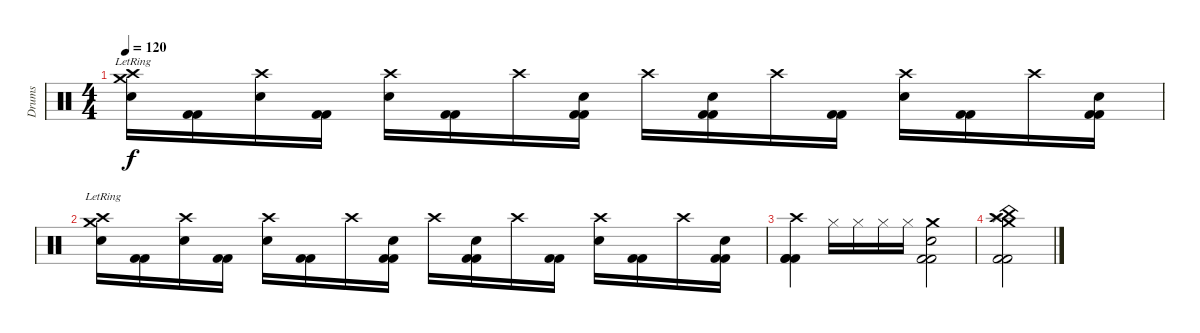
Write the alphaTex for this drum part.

\track ("Drums" "Drums") {instrument percussion}
\staff {score}
\articulation defaults
\ts (4 4)
\tempo 120
\clef neutral
\ks c
("Crash medium (hit)"{lr} "Crash high (hit)"{lr} "Electric Snare (hit)").16{dy f} ("Kick (hit) 2" "Kick (hit) 2").16 ("Crash high (hit)" "Electric Snare (hit)").16 ("Kick (hit) 2" "Kick (hit) 2").16 ("Crash high (hit)" "Electric Snare (hit)").16 ("Kick (hit) 2" "Kick (hit) 2").16 "Crash high (hit)".16 ("Electric Snare (hit)" "Kick (hit) 2" "Kick (hit) 2").16 "Crash high (hit)".16 ("Electric Snare (hit)" "Kick (hit) 2" "Kick (hit) 2").16 "Crash high (hit)".16 ("Kick (hit) 2" "Kick (hit) 2").16 ("Crash high (hit)" "Electric Snare (hit)").16 ("Kick (hit) 2" "Kick (hit) 2").16 "Crash high (hit)".16 ("Electric Snare (hit)" "Kick (hit) 2" "Kick (hit) 2").16 |
("Crash medium (hit)"{lr} "Crash high (hit)"{lr} "Electric Snare (hit)").16 ("Kick (hit) 2" "Kick (hit) 2").16 ("Crash high (hit)" "Electric Snare (hit)").16 ("Kick (hit) 2" "Kick (hit) 2").16 ("Crash high (hit)" "Electric Snare (hit)").16 ("Kick (hit) 2" "Kick (hit) 2").16 "Crash high (hit)".16 ("Electric Snare (hit)" "Kick (hit) 2" "Kick (hit) 2").16 "Crash high (hit)".16 ("Electric Snare (hit)" "Kick (hit) 2" "Kick (hit) 2").16 "Crash high (hit)".16 ("Kick (hit) 2" "Kick (hit) 2").16 ("Crash high (hit)" "Electric Snare (hit)").16 ("Kick (hit) 2" "Kick (hit) 2").16 "Crash high (hit)".16 ("Electric Snare (hit)" "Kick (hit) 2" "Kick (hit) 2").16 |
("Crash high (hit)" "Kick (hit) 2" "Kick (hit) 2" "Kick (hit) 2").4 "Hi-Hat (closed)".16 "Hi-Hat (closed)".16 "Hi-Hat (closed)".16 "Hi-Hat (closed)".16 ("Crash medium (hit)" "Kick (hit) 2" "Kick (hit) 2" "Snare (hit)").2 |
("Kick (hit) 2" "China (hit)" "Crash high (hit)" "Splash (hit)" "Crash medium (hit)" "Kick (hit) 2").2
